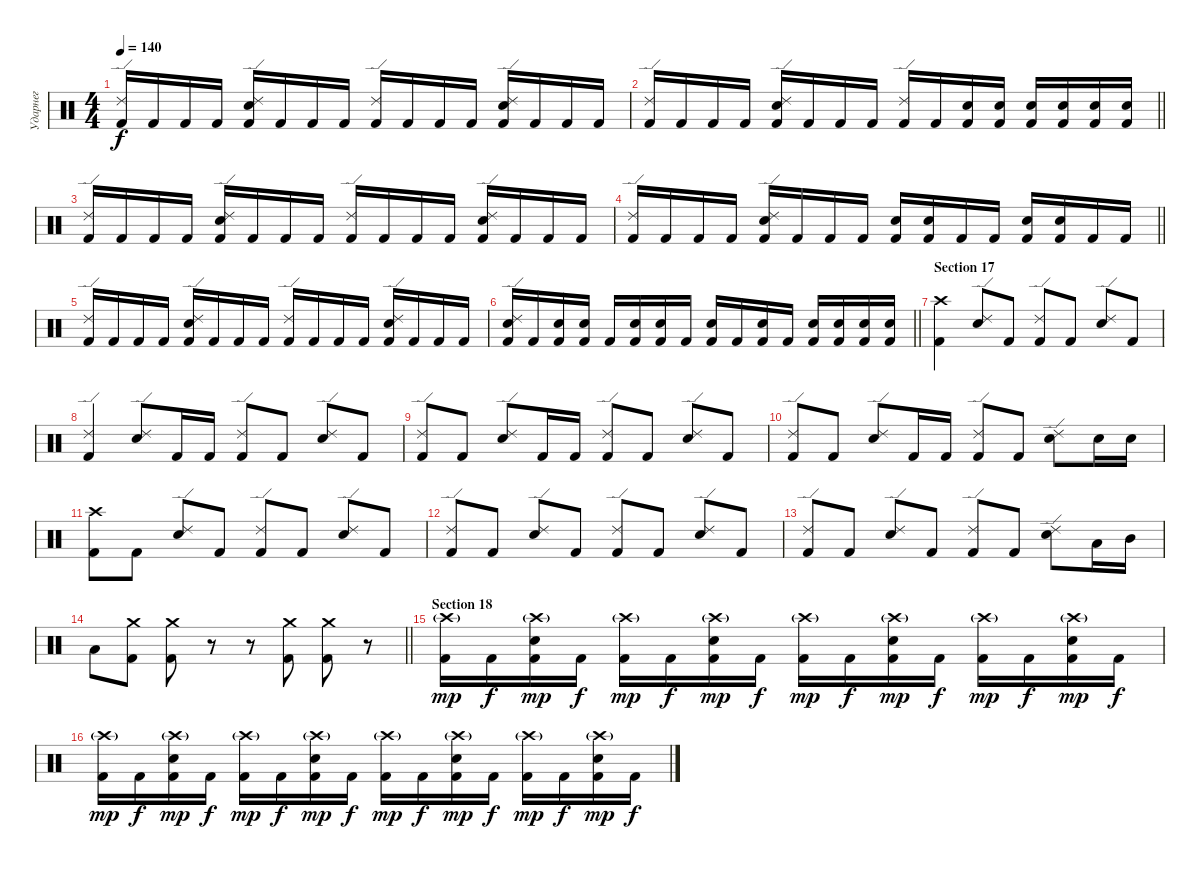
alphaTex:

\track ("Ударнег" "Ударнег") {instrument percussion}
\staff {score}
\articulation defaults
\ts (4 4)
\tempo 140
\clef neutral
\ks c
("Ride (edge) 2" "Kick (hit) 2").16{dy f} "Kick (hit) 2".16 "Kick (hit) 2".16 "Kick (hit) 2".16 ("Ride (edge) 2" "Snare (hit) 2" "Kick (hit) 2").16 "Kick (hit) 2".16 "Kick (hit) 2".16 "Kick (hit) 2".16 ("Ride (edge) 2" "Kick (hit) 2").16 "Kick (hit) 2".16 "Kick (hit) 2".16 "Kick (hit) 2".16 ("Ride (edge) 2" "Snare (hit) 2" "Kick (hit) 2").16 "Kick (hit) 2".16 "Kick (hit) 2".16 "Kick (hit) 2".16 |
\barLineRight lightlight
("Ride (edge) 2" "Kick (hit) 2").16 "Kick (hit) 2".16 "Kick (hit) 2".16 "Kick (hit) 2".16 ("Ride (edge) 2" "Snare (hit) 2" "Kick (hit) 2").16 "Kick (hit) 2".16 "Kick (hit) 2".16 "Kick (hit) 2".16 ("Ride (edge) 2" "Kick (hit) 2").16 "Kick (hit) 2".16 ("Snare (hit) 2" "Kick (hit) 2").16 ("Snare (hit) 2" "Kick (hit) 2").16 ("Snare (hit) 2" "Kick (hit) 2").16 ("Snare (hit) 2" "Kick (hit) 2").16 ("Snare (hit) 2" "Kick (hit) 2").16 ("Snare (hit) 2" "Kick (hit) 2").16 |
("Ride (edge) 2" "Kick (hit) 2").16 "Kick (hit) 2".16 "Kick (hit) 2".16 "Kick (hit) 2".16 ("Ride (edge) 2" "Snare (hit) 2" "Kick (hit) 2").16 "Kick (hit) 2".16 "Kick (hit) 2".16 "Kick (hit) 2".16 ("Ride (edge) 2" "Kick (hit) 2").16 "Kick (hit) 2".16 "Kick (hit) 2".16 "Kick (hit) 2".16 ("Ride (edge) 2" "Snare (hit) 2" "Kick (hit) 2").16 "Kick (hit) 2".16 "Kick (hit) 2".16 "Kick (hit) 2".16 |
\barLineRight lightlight
("Ride (edge) 2" "Kick (hit) 2").16 "Kick (hit) 2".16 "Kick (hit) 2".16 "Kick (hit) 2".16 ("Ride (edge) 2" "Snare (hit) 2" "Kick (hit) 2").16 "Kick (hit) 2".16 "Kick (hit) 2".16 "Kick (hit) 2".16 ("Snare (hit) 2" "Kick (hit) 2").16 ("Snare (hit) 2" "Kick (hit) 2").16 "Kick (hit) 2".16 "Kick (hit) 2".16 ("Snare (hit) 2" "Kick (hit) 2").16 ("Snare (hit) 2" "Kick (hit) 2").16 "Kick (hit) 2".16 "Kick (hit) 2".16 |
("Ride (edge) 2" "Kick (hit) 2").16 "Kick (hit) 2".16 "Kick (hit) 2".16 "Kick (hit) 2".16 ("Ride (edge) 2" "Snare (hit) 2" "Kick (hit) 2").16 "Kick (hit) 2".16 "Kick (hit) 2".16 "Kick (hit) 2".16 ("Ride (edge) 2" "Kick (hit) 2").16 "Kick (hit) 2".16 "Kick (hit) 2".16 "Kick (hit) 2".16 ("Ride (edge) 2" "Snare (hit) 2" "Kick (hit) 2").16 "Kick (hit) 2".16 "Kick (hit) 2".16 "Kick (hit) 2".16 |
\barLineRight lightlight
("Ride (edge) 2" "Snare (hit) 2" "Kick (hit) 2").16 "Kick (hit) 2".16 ("Snare (hit) 2" "Kick (hit) 2").16 ("Snare (hit) 2" "Kick (hit) 2").16 "Kick (hit) 2".16 ("Snare (hit) 2" "Kick (hit) 2").16 ("Snare (hit) 2" "Kick (hit) 2").16 "Kick (hit) 2".16 ("Snare (hit) 2" "Kick (hit) 2").16 "Kick (hit) 2".16 ("Snare (hit) 2" "Kick (hit) 2").16 "Kick (hit) 2".16 ("Snare (hit) 2" "Kick (hit) 2").16 ("Snare (hit) 2" "Kick (hit) 2").16 ("Snare (hit) 2" "Kick (hit) 2").16 ("Snare (hit) 2" "Kick (hit) 2").16 |
\section ("" "Section 17")
("Crash high (hit)" "Kick (hit) 2").4 ("Ride (edge) 2" "Snare (hit) 2").8 "Kick (hit) 2".8 ("Ride (edge) 2" "Kick (hit) 2").8 "Kick (hit) 2".8 ("Ride (edge) 2" "Snare (hit) 2").8 "Kick (hit) 2".8 |
("Ride (edge) 2" "Kick (hit) 2").4 ("Ride (edge) 2" "Snare (hit) 2").8 "Kick (hit) 2".16 "Kick (hit) 2".16 ("Ride (edge) 2" "Kick (hit) 2").8 "Kick (hit) 2".8 ("Ride (edge) 2" "Snare (hit) 2").8 "Kick (hit) 2".8 |
("Ride (edge) 2" "Kick (hit) 2").8 "Kick (hit) 2".8 ("Ride (edge) 2" "Snare (hit) 2").8 "Kick (hit) 2".16 "Kick (hit) 2".16 ("Ride (edge) 2" "Kick (hit) 2").8 "Kick (hit) 2".8 ("Ride (edge) 2" "Snare (hit) 2").8 "Kick (hit) 2".8 |
("Ride (edge) 2" "Kick (hit) 2").8 "Kick (hit) 2".8 ("Ride (edge) 2" "Snare (hit) 2").8 "Kick (hit) 2".16 "Kick (hit) 2".16 ("Ride (edge) 2" "Kick (hit) 2").8 "Kick (hit) 2".8 ("Ride (edge) 2" "Snare (hit) 2").8 "Snare (hit) 2".16 "Snare (hit) 2".16 |
("Crash high (hit)" "Kick (hit) 2").8 "Kick (hit) 2".8 ("Ride (edge) 2" "Snare (hit) 2").8 "Kick (hit) 2".8 ("Ride (edge) 2" "Kick (hit) 2").8 "Kick (hit) 2".8 ("Ride (edge) 2" "Snare (hit) 2").8 "Kick (hit) 2".8 |
("Ride (edge) 2" "Kick (hit) 2").8 "Kick (hit) 2".8 ("Ride (edge) 2" "Snare (hit) 2").8 "Kick (hit) 2".8 ("Ride (edge) 2" "Kick (hit) 2").8 "Kick (hit) 2".8 ("Ride (edge) 2" "Snare (hit) 2").8 "Kick (hit) 2".8 |
("Ride (edge) 2" "Kick (hit) 2").8 "Kick (hit) 2".8 ("Ride (edge) 2" "Snare (hit) 2").8 "Kick (hit) 2".8 ("Ride (edge) 2" "Kick (hit) 2").8 "Kick (hit) 2".8 ("Ride (edge) 2" "Snare (hit) 2").8 "Low Tom (hit)".16 "Mid Tom (hit)".16 |
\barLineRight lightlight "Low Tom (hit)".8
("Crash medium (hit)" "Kick (hit) 2").8 ("Crash medium (hit)" "Kick (hit) 2").8 r.8 r.8 ("Crash medium (hit)" "Kick (hit) 2").8 ("Crash medium (hit)" "Kick (hit) 2").8 r.8 |
\section ("" "Section 18")
("Crash high (hit)"{g} "Kick (hit) 2").16{dy mp} "Kick (hit) 2".16{dy f} ("Crash high (hit)"{g} "Snare (hit) 2" "Kick (hit) 2").16{dy mp} "Kick (hit) 2".16{dy f} ("Crash high (hit)"{g} "Kick (hit) 2").16{dy mp} "Kick (hit) 2".16{dy f} ("Crash high (hit)"{g} "Snare (hit) 2" "Kick (hit) 2").16{dy mp} "Kick (hit) 2".16{dy f} ("Crash high (hit)"{g} "Kick (hit) 2").16{dy mp} "Kick (hit) 2".16{dy f} ("Crash high (hit)"{g} "Snare (hit) 2" "Kick (hit) 2").16{dy mp} "Kick (hit) 2".16{dy f} ("Crash high (hit)"{g} "Kick (hit) 2").16{dy mp} "Kick (hit) 2".16{dy f} ("Crash high (hit)"{g} "Snare (hit) 2" "Kick (hit) 2").16{dy mp} "Kick (hit) 2".16{dy f} |
("Crash high (hit)"{g} "Kick (hit) 2").16{dy mp} "Kick (hit) 2".16{dy f} ("Crash high (hit)"{g} "Snare (hit) 2" "Kick (hit) 2").16{dy mp} "Kick (hit) 2".16{dy f} ("Crash high (hit)"{g} "Kick (hit) 2").16{dy mp} "Kick (hit) 2".16{dy f} ("Crash high (hit)"{g} "Snare (hit) 2" "Kick (hit) 2").16{dy mp} "Kick (hit) 2".16{dy f} ("Crash high (hit)"{g} "Kick (hit) 2").16{dy mp} "Kick (hit) 2".16{dy f} ("Crash high (hit)"{g} "Snare (hit) 2" "Kick (hit) 2").16{dy mp} "Kick (hit) 2".16{dy f} ("Crash high (hit)"{g} "Kick (hit) 2").16{dy mp} "Kick (hit) 2".16{dy f} ("Crash high (hit)"{g} "Snare (hit) 2" "Kick (hit) 2").16{dy mp} "Kick (hit) 2".16{dy f}
